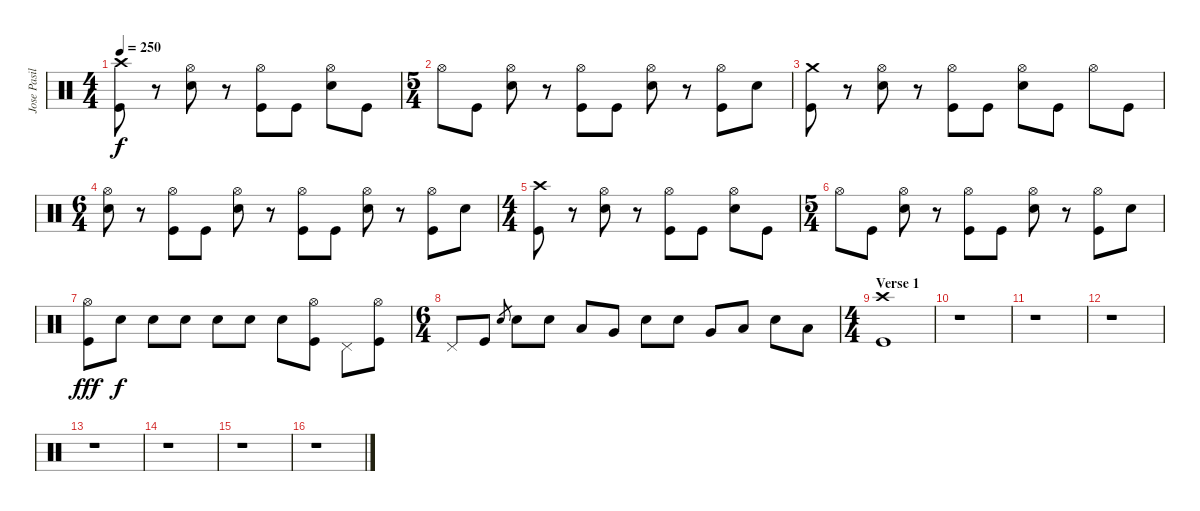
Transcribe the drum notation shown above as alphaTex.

\track ("Jose Pasillas II" "Jose Pasil") {instrument percussion}
\staff {score}
\articulation defaults
\ts (4 4)
\tempo 250
\clef neutral
\ks c
("Crash high (hit)" "Kick (hit)").8{dy f} r.8 ("Hi-Hat (open)" "Electric Snare (hit)").8 r.8 ("Hi-Hat (open)" "Kick (hit)").8 "Kick (hit)".8 ("Hi-Hat (open)" "Electric Snare (hit)").8 "Kick (hit)".8 |
\ts (5 4)
"Hi-Hat (open)".8 "Kick (hit)".8 ("Hi-Hat (open)" "Electric Snare (hit)").8 r.8 ("Hi-Hat (open)" "Kick (hit)").8 "Kick (hit)".8 ("Hi-Hat (open)" "Electric Snare (hit)").8 r.8 ("Hi-Hat (open)" "Kick (hit)").8 "Electric Snare (hit)".8 |
("Crash medium (hit)" "Kick (hit)").8 r.8 ("Hi-Hat (open)" "Electric Snare (hit)").8 r.8 ("Hi-Hat (open)" "Kick (hit)").8 "Kick (hit)".8 ("Hi-Hat (open)" "Electric Snare (hit)").8 "Kick (hit)".8 "Hi-Hat (open)".8 "Kick (hit)".8 |
\ts (6 4)
("Hi-Hat (open)" "Electric Snare (hit)").8 r.8 ("Hi-Hat (open)" "Kick (hit)").8 "Kick (hit)".8 ("Hi-Hat (open)" "Electric Snare (hit)").8 r.8 ("Hi-Hat (open)" "Kick (hit)").8 "Kick (hit)".8 ("Hi-Hat (open)" "Electric Snare (hit)").8 r.8 ("Hi-Hat (open)" "Kick (hit)").8 "Electric Snare (hit)".8 |
\ts (4 4)
("Crash high (hit)" "Kick (hit)").8 r.8 ("Hi-Hat (open)" "Electric Snare (hit)").8 r.8 ("Hi-Hat (open)" "Kick (hit)").8 "Kick (hit)".8 ("Hi-Hat (open)" "Electric Snare (hit)").8 "Kick (hit)".8 |
\ts (5 4)
"Hi-Hat (open)".8 "Kick (hit)".8 ("Hi-Hat (open)" "Electric Snare (hit)").8 r.8 ("Hi-Hat (open)" "Kick (hit)").8 "Kick (hit)".8 ("Hi-Hat (open)" "Electric Snare (hit)").8 r.8 ("Hi-Hat (open)" "Kick (hit)").8 "Electric Snare (hit)".8 |
("Hi-Hat (open)" "Kick (hit)").8{dy fff} "Electric Snare (hit)".8{dy f} "Electric Snare (hit)".8 "Electric Snare (hit)".8 "Electric Snare (hit)".8 "Electric Snare (hit)".8 "Electric Snare (hit)".8 ("Hi-Hat (open)" "Kick (hit)").8 "Pedal Hi-Hat (hit)".8 ("Hi-Hat (open)" "Kick (hit)").8 |
\ts (6 4)
"Pedal Hi-Hat (hit)".8 "Kick (hit)".8 "Electric Snare (hit)".8{gr} "Electric Snare (hit)".8 "Electric Snare (hit)".8 "Low Tom (hit)".8 "Very Low Tom (hit)".8 "Electric Snare (hit)".8 "Electric Snare (hit)".8 "Very Low Tom (hit)".8 "Low Floor Tom (hit)".8 "Electric Snare (hit)".8 "Low Floor Tom (hit)".8 |
\ts (4 4)
\section ("" "Verse 1")
("Crash high (hit)" "Kick (hit)").1 |
r.1 |
r.1 |
r.1 |
r.1 |
r.1 |
r.1 |
r.1
